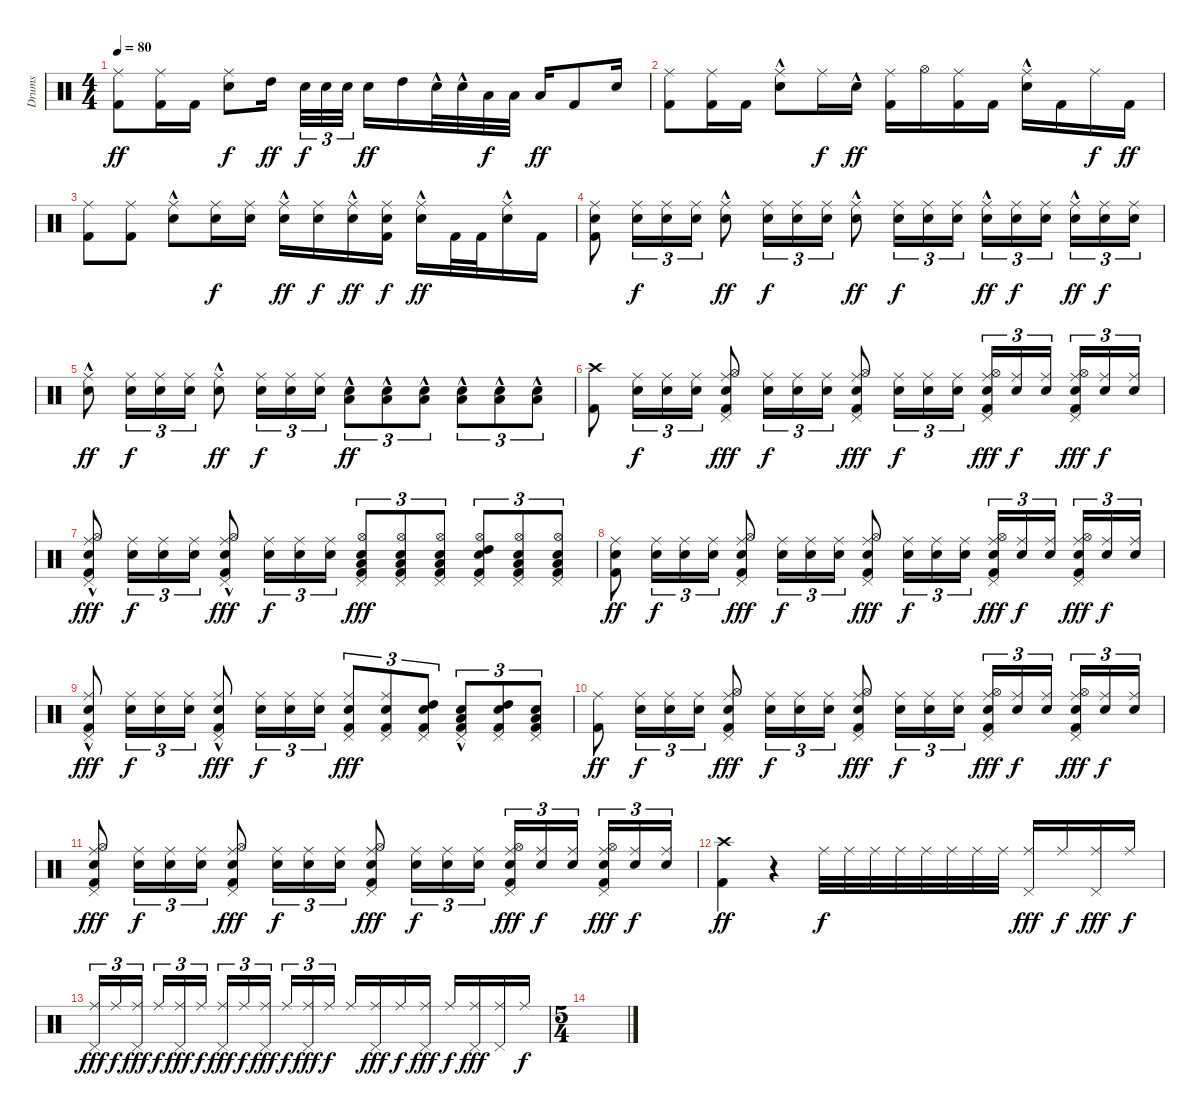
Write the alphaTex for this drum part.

\track ("Drums" "Drums") {instrument percussion}
\staff {score}
\articulation defaults
\ts (4 4)
\tempo 80
\clef neutral
\ks c
("Ride (middle)" "Kick (hit) 2").8{dy ff} ("Ride (middle)" "Kick (hit) 2").16 "Kick (hit) 2".16 ("Ride (middle)" "Electric Snare (hit)").8{dy f} "High Tom (hit)".16{dy ff} "Electric Snare (hit)".32{tu (3 2) dy f} "Electric Snare (hit)".32{tu (3 2)} "Electric Snare (hit)".32{tu (3 2)} "Electric Snare (hit)".16{dy ff} "High Tom (hit)".16 "Electric Snare (hit)"{hac}.32 "Electric Snare (hit)"{hac}.32 "Low Tom (hit)".32{dy f} "Low Tom (hit)".32 "Low Tom (hit)".16{dy ff} "Kick (hit) 2".8 "Electric Snare (hit)".16 |
("Ride (middle)" "Kick (hit) 2").8 ("Ride (middle)" "Kick (hit) 2").16 "Kick (hit) 2".16 ("Ride (middle)" "Electric Snare (hit)"{hac}).8 "Ride (middle)".16{dy f} "Electric Snare (hit)"{hac}.16{dy ff} ("Ride (middle)" "Kick (hit) 2").16 "Hi-Hat (open)".16 ("Ride (middle)" "Kick (hit) 2").16 "Kick (hit) 2".16 ("Ride (middle)" "Electric Snare (hit)"{hac}).16 "Kick (hit) 2".16 "Ride (middle)".16{dy f} "Kick (hit) 2".16{dy ff} |
("Ride (middle)" "Kick (hit) 2").8 ("Ride (middle)" "Kick (hit) 2").8 ("Ride (middle)" "Electric Snare (hit)"{hac}).8 ("Ride (middle)" "Electric Snare (hit)").16{dy f} ("Ride (middle)" "Electric Snare (hit)").16 ("Ride (middle)" "Electric Snare (hit)"{hac}).16{dy ff} ("Ride (middle)" "Electric Snare (hit)").16{dy f} ("Ride (middle)" "Electric Snare (hit)"{hac}).16{dy ff} ("Ride (middle)" "Electric Snare (hit)" "Kick (hit) 2").16{dy f} ("Ride (middle)" "Electric Snare (hit)"{hac}).16{dy ff} "Kick (hit) 2".32 "Kick (hit) 2".32 ("Ride (middle)" "Electric Snare (hit)"{hac}).16 "Kick (hit) 2".16 |
("Ride (middle)" "Electric Snare (hit)" "Kick (hit) 2").8 ("Ride (middle)" "Electric Snare (hit)").16{tu (3 2) dy f} ("Ride (middle)" "Electric Snare (hit)").16{tu (3 2)} ("Ride (middle)" "Electric Snare (hit)").16{tu (3 2)} ("Ride (middle)" "Electric Snare (hit)"{hac}).8{dy ff} ("Ride (middle)" "Electric Snare (hit)").16{tu (3 2) dy f} ("Ride (middle)" "Electric Snare (hit)").16{tu (3 2)} ("Ride (middle)" "Electric Snare (hit)").16{tu (3 2)} ("Ride (middle)" "Electric Snare (hit)"{hac}).8{dy ff} ("Ride (middle)" "Electric Snare (hit)").16{tu (3 2) dy f} ("Ride (middle)" "Electric Snare (hit)").16{tu (3 2)} ("Ride (middle)" "Electric Snare (hit)").16{tu (3 2)} ("Ride (middle)"{hac} "Electric Snare (hit)"{hac}).16{tu (3 2) dy ff} ("Ride (middle)" "Electric Snare (hit)").16{tu (3 2) dy f} ("Ride (middle)" "Electric Snare (hit)").16{tu (3 2)} ("Ride (middle)"{hac} "Electric Snare (hit)"{hac}).16{tu (3 2) dy ff} ("Ride (middle)" "Electric Snare (hit)").16{tu (3 2) dy f} ("Ride (middle)" "Electric Snare (hit)").16{tu (3 2)} |
("Ride (middle)" "Electric Snare (hit)"{hac}).8{dy ff} ("Ride (middle)" "Electric Snare (hit)").16{tu (3 2) dy f} ("Ride (middle)" "Electric Snare (hit)").16{tu (3 2)} ("Ride (middle)" "Electric Snare (hit)").16{tu (3 2)} ("Ride (middle)" "Electric Snare (hit)"{hac}).8{dy ff} ("Ride (middle)" "Electric Snare (hit)").16{tu (3 2) dy f} ("Ride (middle)" "Electric Snare (hit)").16{tu (3 2)} ("Ride (middle)" "Electric Snare (hit)").16{tu (3 2)} ("Electric Snare (hit)"{hac} "Low Tom (hit)"{hac}).8{tu (3 2) dy ff} ("Electric Snare (hit)"{hac} "Low Tom (hit)"{hac}).8{tu (3 2)} ("Electric Snare (hit)"{hac} "Low Tom (hit)"{hac}).8{tu (3 2)} ("Electric Snare (hit)"{hac} "Low Tom (hit)"{hac}).8{tu (3 2)} ("Electric Snare (hit)"{hac} "Low Tom (hit)"{hac}).8{tu (3 2)} ("Electric Snare (hit)"{hac} "Low Tom (hit)"{hac}).8{tu (3 2)} |
("Crash high (hit)" "Kick (hit) 2").8 ("Ride (middle)" "Electric Snare (hit)").16{tu (3 2) dy f} ("Ride (middle)" "Electric Snare (hit)").16{tu (3 2)} ("Ride (middle)" "Electric Snare (hit)").16{tu (3 2)} ("Ride (middle)" "Hi-Hat (open)" "Electric Snare (hit)" "Kick (hit) 2" "Pedal Hi-Hat (hit)").8{dy fff} ("Ride (middle)" "Electric Snare (hit)").16{tu (3 2) dy f} ("Ride (middle)" "Electric Snare (hit)").16{tu (3 2)} ("Ride (middle)" "Electric Snare (hit)").16{tu (3 2)} ("Ride (middle)" "Hi-Hat (open)" "Electric Snare (hit)" "Kick (hit) 2" "Pedal Hi-Hat (hit)").8{dy fff} ("Ride (middle)" "Electric Snare (hit)").16{tu (3 2) dy f} ("Ride (middle)" "Electric Snare (hit)").16{tu (3 2)} ("Ride (middle)" "Electric Snare (hit)").16{tu (3 2)} ("Ride (middle)" "Hi-Hat (open)" "Electric Snare (hit)" "Kick (hit) 2" "Pedal Hi-Hat (hit)").16{tu (3 2) dy fff} ("Ride (middle)" "Electric Snare (hit)").16{tu (3 2) dy f} ("Ride (middle)" "Electric Snare (hit)").16{tu (3 2)} ("Ride (middle)" "Hi-Hat (open)" "Electric Snare (hit)" "Kick (hit) 2" "Pedal Hi-Hat (hit)").16{tu (3 2) dy fff} ("Ride (middle)" "Electric Snare (hit)").16{tu (3 2) dy f} ("Ride (middle)" "Electric Snare (hit)").16{tu (3 2)} |
("Ride (middle)" "Hi-Hat (open)" "Electric Snare (hit)"{hac} "Kick (hit) 2" "Pedal Hi-Hat (hit)").8{dy fff} ("Ride (middle)" "Electric Snare (hit)").16{tu (3 2) dy f} ("Ride (middle)" "Electric Snare (hit)").16{tu (3 2)} ("Ride (middle)" "Electric Snare (hit)").16{tu (3 2)} ("Ride (middle)" "Hi-Hat (open)" "Electric Snare (hit)"{hac} "Kick (hit) 2" "Pedal Hi-Hat (hit)").8{dy fff} ("Ride (middle)" "Electric Snare (hit)").16{tu (3 2) dy f} ("Ride (middle)" "Electric Snare (hit)").16{tu (3 2)} ("Ride (middle)" "Electric Snare (hit)").16{tu (3 2)} ("Hi-Hat (open)" "Electric Snare (hit)" "Low Tom (hit)" "Kick (hit) 2" "Pedal Hi-Hat (hit)").8{tu (3 2) dy fff} ("Hi-Hat (open)" "Electric Snare (hit)" "Low Tom (hit)" "Kick (hit) 2" "Pedal Hi-Hat (hit)").8{tu (3 2)} ("Hi-Hat (open)" "Electric Snare (hit)" "Low Tom (hit)" "Kick (hit) 2" "Pedal Hi-Hat (hit)").8{tu (3 2)} ("Hi-Hat (open)" "Electric Snare (hit)" "High Tom (hit)" "Kick (hit) 2" "Pedal Hi-Hat (hit)").8{tu (3 2)} ("Hi-Hat (open)" "Electric Snare (hit)" "Low Tom (hit)" "Kick (hit) 2" "Pedal Hi-Hat (hit)").8{tu (3 2)} ("Hi-Hat (open)" "Electric Snare (hit)" "Low Tom (hit)" "Kick (hit) 2" "Pedal Hi-Hat (hit)").8{tu (3 2)} |
("Ride (middle)" "Electric Snare (hit)" "Kick (hit) 2").8{dy ff} ("Ride (middle)" "Electric Snare (hit)").16{tu (3 2) dy f} ("Ride (middle)" "Electric Snare (hit)").16{tu (3 2)} ("Ride (middle)" "Electric Snare (hit)").16{tu (3 2)} ("Ride (middle)" "Hi-Hat (open)" "Electric Snare (hit)" "Kick (hit) 2" "Pedal Hi-Hat (hit)").8{dy fff} ("Ride (middle)" "Electric Snare (hit)").16{tu (3 2) dy f} ("Ride (middle)" "Electric Snare (hit)").16{tu (3 2)} ("Ride (middle)" "Electric Snare (hit)").16{tu (3 2)} ("Ride (middle)" "Hi-Hat (open)" "Electric Snare (hit)" "Kick (hit) 2" "Pedal Hi-Hat (hit)").8{dy fff} ("Ride (middle)" "Electric Snare (hit)").16{tu (3 2) dy f} ("Ride (middle)" "Electric Snare (hit)").16{tu (3 2)} ("Ride (middle)" "Electric Snare (hit)").16{tu (3 2)} ("Ride (middle)" "Hi-Hat (open)" "Electric Snare (hit)" "Kick (hit) 2" "Pedal Hi-Hat (hit)").16{tu (3 2) dy fff} ("Ride (middle)" "Electric Snare (hit)").16{tu (3 2) dy f} ("Ride (middle)" "Electric Snare (hit)").16{tu (3 2)} ("Ride (middle)" "Hi-Hat (open)" "Electric Snare (hit)" "Kick (hit) 2" "Pedal Hi-Hat (hit)").16{tu (3 2) dy fff} ("Ride (middle)" "Electric Snare (hit)").16{tu (3 2) dy f} ("Ride (middle)" "Electric Snare (hit)").16{tu (3 2)} |
("Ride (middle)" "Electric Snare (hit)"{hac} "Kick (hit) 2" "Pedal Hi-Hat (hit)").8{dy fff} ("Ride (middle)" "Electric Snare (hit)").16{tu (3 2) dy f} ("Ride (middle)" "Electric Snare (hit)").16{tu (3 2)} ("Ride (middle)" "Electric Snare (hit)").16{tu (3 2)} ("Ride (middle)" "Electric Snare (hit)"{hac} "Kick (hit) 2" "Pedal Hi-Hat (hit)").8{dy fff} ("Ride (middle)" "Electric Snare (hit)").16{tu (3 2) dy f} ("Ride (middle)" "Electric Snare (hit)").16{tu (3 2)} ("Ride (middle)" "Electric Snare (hit)").16{tu (3 2)} ("Ride (middle)" "Electric Snare (hit)" "Kick (hit) 2" "Pedal Hi-Hat (hit)").8{tu (3 2) dy fff} ("Ride (middle)" "Electric Snare (hit)" "Kick (hit) 2" "Pedal Hi-Hat (hit)").8{tu (3 2)} ("Electric Snare (hit)" "High Tom (hit)" "Kick (hit) 2" "Pedal Hi-Hat (hit)").8{tu (3 2)} ("Electric Snare (hit)"{hac} "Low Tom (hit)"{hac} "Kick (hit) 2"{hac} "Pedal Hi-Hat (hit)"{hac}).8{tu (3 2)} ("Electric Snare (hit)" "High Tom (hit)" "Kick (hit) 2" "Pedal Hi-Hat (hit)").8{tu (3 2)} ("Electric Snare (hit)" "Low Tom (hit)" "Kick (hit) 2" "Pedal Hi-Hat (hit)").8{tu (3 2)} |
("Ride (middle)" "Kick (hit) 2").8{dy ff} ("Ride (middle)" "Electric Snare (hit)").16{tu (3 2) dy f} ("Ride (middle)" "Electric Snare (hit)").16{tu (3 2)} ("Ride (middle)" "Electric Snare (hit)").16{tu (3 2)} ("Ride (middle)" "Hi-Hat (open)" "Electric Snare (hit)" "Kick (hit) 2" "Pedal Hi-Hat (hit)").8{dy fff} ("Ride (middle)" "Electric Snare (hit)").16{tu (3 2) dy f} ("Ride (middle)" "Electric Snare (hit)").16{tu (3 2)} ("Ride (middle)" "Electric Snare (hit)").16{tu (3 2)} ("Ride (middle)" "Hi-Hat (open)" "Electric Snare (hit)" "Kick (hit) 2" "Pedal Hi-Hat (hit)").8{dy fff} ("Ride (middle)" "Electric Snare (hit)").16{tu (3 2) dy f} ("Ride (middle)" "Electric Snare (hit)").16{tu (3 2)} ("Ride (middle)" "Electric Snare (hit)").16{tu (3 2)} ("Ride (middle)" "Hi-Hat (open)" "Electric Snare (hit)" "Kick (hit) 2" "Pedal Hi-Hat (hit)").16{tu (3 2) dy fff} ("Ride (middle)" "Electric Snare (hit)").16{tu (3 2) dy f} ("Ride (middle)" "Electric Snare (hit)").16{tu (3 2)} ("Ride (middle)" "Hi-Hat (open)" "Electric Snare (hit)" "Kick (hit) 2" "Pedal Hi-Hat (hit)").16{tu (3 2) dy fff} ("Ride (middle)" "Electric Snare (hit)").16{tu (3 2) dy f} ("Ride (middle)" "Electric Snare (hit)").16{tu (3 2)} |
("Ride (middle)" "Hi-Hat (open)" "Electric Snare (hit)" "Kick (hit) 2" "Pedal Hi-Hat (hit)").8{dy fff} ("Ride (middle)" "Electric Snare (hit)").16{tu (3 2) dy f} ("Ride (middle)" "Electric Snare (hit)").16{tu (3 2)} ("Ride (middle)" "Electric Snare (hit)").16{tu (3 2)} ("Ride (middle)" "Hi-Hat (open)" "Electric Snare (hit)" "Kick (hit) 2" "Pedal Hi-Hat (hit)").8{dy fff} ("Ride (middle)" "Electric Snare (hit)").16{tu (3 2) dy f} ("Ride (middle)" "Electric Snare (hit)").16{tu (3 2)} ("Ride (middle)" "Electric Snare (hit)").16{tu (3 2)} ("Ride (middle)" "Hi-Hat (open)" "Electric Snare (hit)" "Kick (hit) 2" "Pedal Hi-Hat (hit)").8{dy fff} ("Ride (middle)" "Electric Snare (hit)").16{tu (3 2) dy f} ("Ride (middle)" "Electric Snare (hit)").16{tu (3 2)} ("Ride (middle)" "Electric Snare (hit)").16{tu (3 2)} ("Ride (middle)" "Hi-Hat (open)" "Electric Snare (hit)" "Kick (hit) 2" "Pedal Hi-Hat (hit)").16{tu (3 2) dy fff} ("Ride (middle)" "Electric Snare (hit)").16{tu (3 2) dy f} ("Ride (middle)" "Electric Snare (hit)").16{tu (3 2)} ("Ride (middle)" "Hi-Hat (open)" "Electric Snare (hit)" "Kick (hit) 2" "Pedal Hi-Hat (hit)").16{tu (3 2) dy fff} ("Ride (middle)" "Electric Snare (hit)").16{tu (3 2) dy f} ("Ride (middle)" "Electric Snare (hit)").16{tu (3 2)} |
("Crash high (hit)" "Kick (hit) 2").4{dy ff} r.4 "Ride (middle)".32{dy f} "Ride (middle)".32 "Ride (middle)".32 "Ride (middle)".32 "Ride (middle)".32 "Ride (middle)".32 "Ride (middle)".32 "Ride (middle)".32 ("Ride (middle)" "Pedal Hi-Hat (hit)").16{dy fff} "Ride (middle)".16{dy f} ("Ride (middle)" "Pedal Hi-Hat (hit)").16{dy fff} "Ride (middle)".16{dy f} |
("Ride (middle)" "Pedal Hi-Hat (hit)").16{tu (3 2) dy fff} "Ride (middle)".16{tu (3 2) dy f} ("Ride (middle)" "Pedal Hi-Hat (hit)").16{tu (3 2) dy fff} "Ride (middle)".16{tu (3 2) dy f} ("Ride (middle)" "Pedal Hi-Hat (hit)").16{tu (3 2) dy fff} "Ride (middle)".16{tu (3 2) dy f} ("Ride (middle)" "Pedal Hi-Hat (hit)").16{tu (3 2) dy fff} "Ride (middle)".16{tu (3 2) dy f} ("Ride (middle)" "Pedal Hi-Hat (hit)").16{tu (3 2) dy fff} "Ride (middle)".16{tu (3 2) dy f} ("Ride (middle)" "Pedal Hi-Hat (hit)").16{tu (3 2) dy fff} "Ride (middle)".16{tu (3 2) dy f} "Ride (middle)".16 ("Ride (middle)" "Pedal Hi-Hat (hit)").16{dy fff} "Ride (middle)".16{dy f} ("Ride (middle)" "Pedal Hi-Hat (hit)").16{dy fff} "Ride (middle)".16{dy f} ("Ride (middle)" "Pedal Hi-Hat (hit)").16{dy fff} ("Ride (middle)" "Pedal Hi-Hat (hit)").16 "Ride (middle)".16{dy f} |
\ts (5 4)
